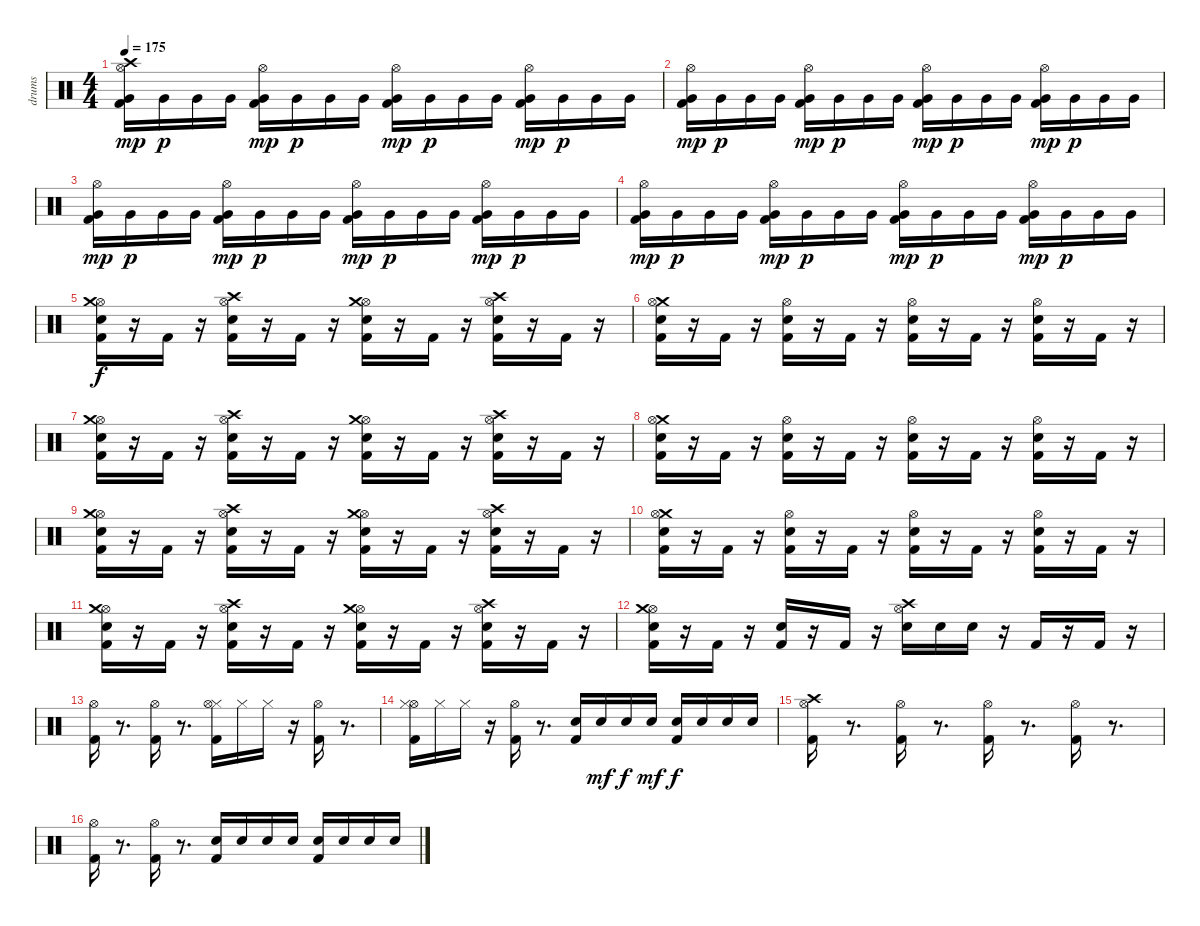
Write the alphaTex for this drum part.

\track ("drums" "drums") {instrument percussion}
\staff {score}
\articulation defaults
\ts (4 4)
\tempo 175
\clef neutral
\ks c
("Hi-Hat (open)" "Crash high (hit)" "Very Low Tom (hit)" "Kick (hit) 2").16{dy mp} "Very Low Tom (hit)".16{dy p} "Very Low Tom (hit)".16 "Very Low Tom (hit)".16 ("Hi-Hat (open)" "Very Low Tom (hit)" "Kick (hit) 2").16{dy mp} "Very Low Tom (hit)".16{dy p} "Very Low Tom (hit)".16 "Very Low Tom (hit)".16 ("Hi-Hat (open)" "Very Low Tom (hit)" "Kick (hit) 2").16{dy mp} "Very Low Tom (hit)".16{dy p} "Very Low Tom (hit)".16 "Very Low Tom (hit)".16 ("Hi-Hat (open)" "Very Low Tom (hit)" "Kick (hit) 2").16{dy mp} "Very Low Tom (hit)".16{dy p} "Very Low Tom (hit)".16 "Very Low Tom (hit)".16 |
("Hi-Hat (open)" "Very Low Tom (hit)" "Kick (hit) 2").16{dy mp} "Very Low Tom (hit)".16{dy p} "Very Low Tom (hit)".16 "Very Low Tom (hit)".16 ("Hi-Hat (open)" "Very Low Tom (hit)" "Kick (hit) 2").16{dy mp} "Very Low Tom (hit)".16{dy p} "Very Low Tom (hit)".16 "Very Low Tom (hit)".16 ("Hi-Hat (open)" "Very Low Tom (hit)" "Kick (hit) 2").16{dy mp} "Very Low Tom (hit)".16{dy p} "Very Low Tom (hit)".16 "Very Low Tom (hit)".16 ("Hi-Hat (open)" "Very Low Tom (hit)" "Kick (hit) 2").16{dy mp} "Very Low Tom (hit)".16{dy p} "Very Low Tom (hit)".16 "Very Low Tom (hit)".16 |
("Hi-Hat (open)" "Very Low Tom (hit)" "Kick (hit) 2").16{dy mp} "Very Low Tom (hit)".16{dy p} "Very Low Tom (hit)".16 "Very Low Tom (hit)".16 ("Hi-Hat (open)" "Very Low Tom (hit)" "Kick (hit) 2").16{dy mp} "Very Low Tom (hit)".16{dy p} "Very Low Tom (hit)".16 "Very Low Tom (hit)".16 ("Hi-Hat (open)" "Very Low Tom (hit)" "Kick (hit) 2").16{dy mp} "Very Low Tom (hit)".16{dy p} "Very Low Tom (hit)".16 "Very Low Tom (hit)".16 ("Hi-Hat (open)" "Very Low Tom (hit)" "Kick (hit) 2").16{dy mp} "Very Low Tom (hit)".16{dy p} "Very Low Tom (hit)".16 "Very Low Tom (hit)".16 |
("Hi-Hat (open)" "Very Low Tom (hit)" "Kick (hit) 2").16{dy mp} "Very Low Tom (hit)".16{dy p} "Very Low Tom (hit)".16 "Very Low Tom (hit)".16 ("Hi-Hat (open)" "Very Low Tom (hit)" "Kick (hit) 2").16{dy mp} "Very Low Tom (hit)".16{dy p} "Very Low Tom (hit)".16 "Very Low Tom (hit)".16 ("Hi-Hat (open)" "Very Low Tom (hit)" "Kick (hit) 2").16{dy mp} "Very Low Tom (hit)".16{dy p} "Very Low Tom (hit)".16 "Very Low Tom (hit)".16 ("Hi-Hat (open)" "Very Low Tom (hit)" "Kick (hit) 2").16{dy mp} "Very Low Tom (hit)".16{dy p} "Very Low Tom (hit)".16 "Very Low Tom (hit)".16 |
("Hi-Hat (open)" "Electric Snare (hit)" "Kick (hit) 2" "Crash medium (hit)").16{dy f} r.16 "Kick (hit) 2".16 r.16 ("Hi-Hat (open)" "Electric Snare (hit)" "Kick (hit) 2" "Crash high (hit)").16 r.16 "Kick (hit) 2".16 r.16 ("Hi-Hat (open)" "Electric Snare (hit)" "Kick (hit) 2" "Crash medium (hit)").16 r.16 "Kick (hit) 2".16 r.16 ("Hi-Hat (open)" "Electric Snare (hit)" "Kick (hit) 2" "Crash high (hit)").16 r.16 "Kick (hit) 2".16 r.16 |
("Crash medium (hit)" "Hi-Hat (open)" "Electric Snare (hit)" "Kick (hit) 2").16 r.16 "Kick (hit) 2".16 r.16 ("Hi-Hat (open)" "Electric Snare (hit)" "Kick (hit) 2").16 r.16 "Kick (hit) 2".16 r.16 ("Hi-Hat (open)" "Electric Snare (hit)" "Kick (hit) 2").16 r.16 "Kick (hit) 2".16 r.16 ("Hi-Hat (open)" "Electric Snare (hit)" "Kick (hit) 2").16 r.16 "Kick (hit) 2".16 r.16 |
("Hi-Hat (open)" "Electric Snare (hit)" "Kick (hit) 2" "Crash medium (hit)").16 r.16 "Kick (hit) 2".16 r.16 ("Hi-Hat (open)" "Electric Snare (hit)" "Kick (hit) 2" "Crash high (hit)").16 r.16 "Kick (hit) 2".16 r.16 ("Hi-Hat (open)" "Electric Snare (hit)" "Kick (hit) 2" "Crash medium (hit)").16 r.16 "Kick (hit) 2".16 r.16 ("Hi-Hat (open)" "Electric Snare (hit)" "Kick (hit) 2" "Crash high (hit)").16 r.16 "Kick (hit) 2".16 r.16 |
("Crash medium (hit)" "Hi-Hat (open)" "Electric Snare (hit)" "Kick (hit) 2").16 r.16 "Kick (hit) 2".16 r.16 ("Hi-Hat (open)" "Electric Snare (hit)" "Kick (hit) 2").16 r.16 "Kick (hit) 2".16 r.16 ("Hi-Hat (open)" "Electric Snare (hit)" "Kick (hit) 2").16 r.16 "Kick (hit) 2".16 r.16 ("Hi-Hat (open)" "Electric Snare (hit)" "Kick (hit) 2").16 r.16 "Kick (hit) 2".16 r.16 |
("Hi-Hat (open)" "Electric Snare (hit)" "Kick (hit) 2" "Crash medium (hit)").16 r.16 "Kick (hit) 2".16 r.16 ("Hi-Hat (open)" "Electric Snare (hit)" "Kick (hit) 2" "Crash high (hit)").16 r.16 "Kick (hit) 2".16 r.16 ("Hi-Hat (open)" "Electric Snare (hit)" "Kick (hit) 2" "Crash medium (hit)").16 r.16 "Kick (hit) 2".16 r.16 ("Hi-Hat (open)" "Electric Snare (hit)" "Kick (hit) 2" "Crash high (hit)").16 r.16 "Kick (hit) 2".16 r.16 |
("Crash medium (hit)" "Hi-Hat (open)" "Electric Snare (hit)" "Kick (hit) 2").16 r.16 "Kick (hit) 2".16 r.16 ("Hi-Hat (open)" "Electric Snare (hit)" "Kick (hit) 2").16 r.16 "Kick (hit) 2".16 r.16 ("Hi-Hat (open)" "Electric Snare (hit)" "Kick (hit) 2").16 r.16 "Kick (hit) 2".16 r.16 ("Hi-Hat (open)" "Electric Snare (hit)" "Kick (hit) 2").16 r.16 "Kick (hit) 2".16 r.16 |
("Hi-Hat (open)" "Electric Snare (hit)" "Kick (hit) 2" "Crash medium (hit)").16 r.16 "Kick (hit) 2".16 r.16 ("Hi-Hat (open)" "Electric Snare (hit)" "Kick (hit) 2" "Crash high (hit)").16 r.16 "Kick (hit) 2".16 r.16 ("Hi-Hat (open)" "Electric Snare (hit)" "Kick (hit) 2" "Crash medium (hit)").16 r.16 "Kick (hit) 2".16 r.16 ("Hi-Hat (open)" "Electric Snare (hit)" "Kick (hit) 2" "Crash high (hit)").16 r.16 "Kick (hit) 2".16 r.16 |
("Hi-Hat (open)" "Crash medium (hit)" "Electric Snare (hit)" "Kick (hit) 2").16 r.16 "Kick (hit) 2".16 r.16 ("Electric Snare (hit)" "Kick (hit) 2").16 r.16 "Kick (hit) 2".16 r.16 ("Crash high (hit)" "Hi-Hat (open)" "Electric Snare (hit)").16 "Electric Snare (hit)".16 "Electric Snare (hit)".16 r.16 "Kick (hit) 2".16 r.16 "Kick (hit) 2".16 r.16 |
("Hi-Hat (open)" "Kick (hit) 2").16 r.8{d} ("Hi-Hat (open)" "Kick (hit) 2").16 r.8{d} ("Hi-Hat (closed)" "Hi-Hat (open)" "Kick (hit) 2").16 "Hi-Hat (closed)".16 "Hi-Hat (closed)".16 r.16 ("Hi-Hat (open)" "Kick (hit) 2").16 r.8{d} |
("Hi-Hat (open)" "Hi-Hat (closed)" "Kick (hit) 2").16 "Hi-Hat (closed)".16 "Hi-Hat (closed)".16 r.16 ("Hi-Hat (open)" "Kick (hit) 2").16 r.8{d} ("Kick (hit) 2" "Electric Snare (hit)").16 "Electric Snare (hit)".16{dy mf} "Electric Snare (hit)".16{dy f} "Electric Snare (hit)".16{dy mf} ("Kick (hit) 2" "Electric Snare (hit)").16{dy f} "Electric Snare (hit)".16 "Electric Snare (hit)".16 "Electric Snare (hit)".16 |
("Hi-Hat (open)" "Kick (hit) 2" "Crash high (hit)").16 r.8{d} ("Kick (hit) 2" "Hi-Hat (open)").16 r.8{d} ("Kick (hit) 2" "Hi-Hat (open)").16 r.8{d} ("Kick (hit) 2" "Hi-Hat (open)").16 r.8{d} |
("Kick (hit) 2" "Hi-Hat (open)").16 r.8{d} ("Kick (hit) 2" "Hi-Hat (open)").16 r.8{d} ("Electric Snare (hit)" "Kick (hit) 2").16 "Electric Snare (hit)".16 "Electric Snare (hit)".16 "Electric Snare (hit)".16 ("Electric Snare (hit)" "Kick (hit) 2").16 "Electric Snare (hit)".16 "Electric Snare (hit)".16 "Electric Snare (hit)".16
